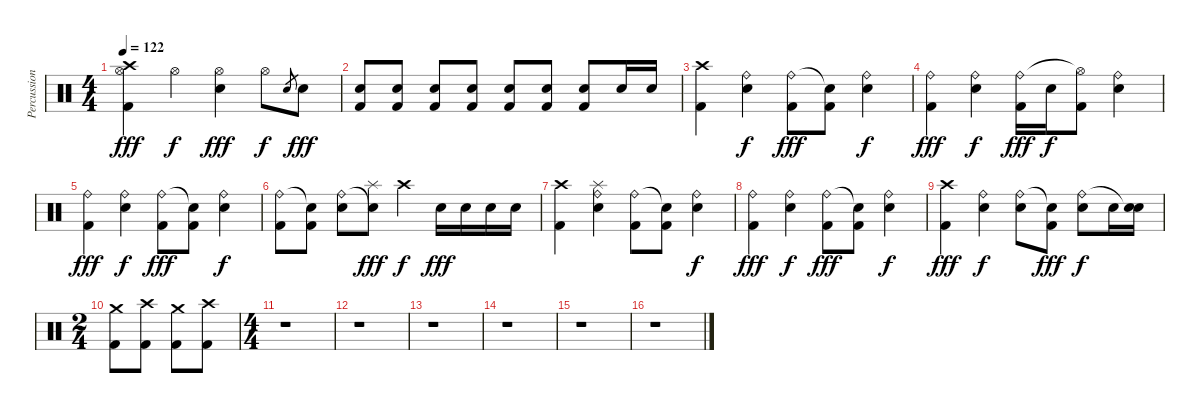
\track ("Percussions" "Percussion") {instrument percussion}
\staff {score}
\articulation defaults
\ts (4 4)
\tempo 122
\clef neutral
\ks c
("Crash high (hit)" "Kick (hit) 2" "Hi-Hat (open)").4{dy fff} "Hi-Hat (open)".4{dy f} ("Snare (hit) 2" "Hi-Hat (open)").4{dy fff} "Hi-Hat (open)".8{dy f} "Snare (hit) 2".8{gr} "Snare (hit) 2".8{dy fff} |
("Snare (hit) 2" "Kick (hit) 2").8 ("Snare (hit) 2" "Kick (hit) 2").8 ("Snare (hit) 2" "Kick (hit) 2").8 ("Snare (hit) 2" "Kick (hit) 2").8 ("Snare (hit) 2" "Kick (hit) 2").8 ("Snare (hit) 2" "Kick (hit) 2").8 ("Snare (hit) 2" "Kick (hit) 2").8 "Snare (hit) 2".16 "Snare (hit) 2".16 |
("Crash high (hit)" "Kick (hit) 2").4 ("Snare (hit) 2" "Ride (bell)").4{dy f} ("Kick (hit) 2" "Ride (bell)").8{dy fff} ("Kick (hit) 2" "Snare (hit)"{t}).8 ("Snare (hit) 2" "Ride (bell)").4{dy f} |
("Kick (hit) 2" "Ride (bell)").4{dy fff} ("Snare (hit) 2" "Ride (bell)").4{dy f} ("Kick (hit) 2" "Ride (bell)").16{dy fff} "Snare (hit) 2".16{dy f} ("Kick (hit) 2" "Hi-Hat (open)"{t}).8 ("Snare (hit) 2" "Ride (bell)").4 |
("Kick (hit) 2" "Ride (bell)").4{dy fff} ("Snare (hit) 2" "Ride (bell)").4{dy f} ("Kick (hit) 2" "Ride (bell)").8{dy fff} ("Kick (hit) 2" "Snare (hit)"{t}).8 ("Snare (hit) 2" "Ride (bell)").4{dy f} |
("Kick (hit) 2" "Ride (bell)").8 ("Kick (hit) 2" "Snare (hit)"{t}).8 ("Snare (hit) 2" "Ride (bell)").8 ("Splash (hit)" "Snare (hit)"{t}).8{dy fff} "Crash high (hit)".4{dy f} "Snare (hit) 2".16{dy fff} "Snare (hit) 2".16 "Snare (hit) 2".16 "Snare (hit) 2".16 |
("Crash high (hit)" "Kick (hit) 2").4 ("Splash (hit)" "Snare (hit) 2" "Ride (bell)").4 ("Kick (hit) 2" "Ride (bell)").8 ("Kick (hit) 2" "Snare (hit)"{t}).8 ("Snare (hit) 2" "Ride (bell)").4{dy f} |
("Kick (hit) 2" "Ride (bell)").4{dy fff} ("Snare (hit) 2" "Ride (bell)").4{dy f} ("Kick (hit) 2" "Ride (bell)").8{dy fff} ("Kick (hit) 2" "Snare (hit)"{t}).8 ("Snare (hit) 2" "Ride (bell)").4{dy f} |
("Crash high (hit)" "Kick (hit) 2").4{dy fff} ("Snare (hit) 2" "Ride (bell)").4{dy f} ("Snare (hit) 2" "Ride (bell)").8 ("Kick (hit) 2" "Snare (hit)"{t}).8{dy fff} ("Snare (hit) 2" "Ride (bell)").8{dy f} "Snare (hit) 2".16 ("Snare (hit) 2" "Snare (hit)"{t}).16 |
\ts (2 4)
("Crash medium (hit)" "Kick (hit) 2").8 ("Crash high (hit)" "Kick (hit) 2").8 ("Crash medium (hit)" "Kick (hit) 2").8 ("Crash high (hit)" "Kick (hit) 2").8 |
\ts (4 4)
r.1 |
r.1 |
r.1 |
r.1 |
r.1 |
r.1
